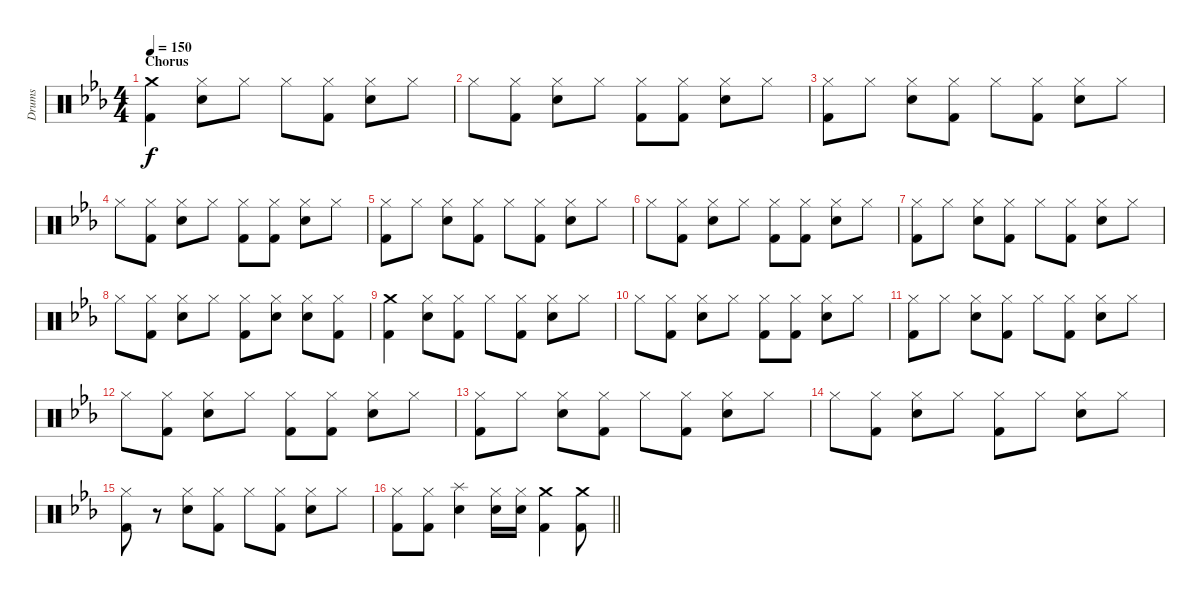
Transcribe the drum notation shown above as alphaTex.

\track ("Drums" "Drums") {instrument percussion}
\staff {score}
\articulation defaults
\ts (4 4)
\section ("" "Chorus")
\tempo 150
\clef neutral
\ks eb
("Crash medium (hit)" "Kick (hit) 2").4{dy f} ("Hi-Hat (closed)" "Electric Snare (hit)").8 "Hi-Hat (closed)".8 "Hi-Hat (closed)".8 ("Hi-Hat (closed)" "Kick (hit) 2").8 ("Hi-Hat (closed)" "Electric Snare (hit)").8 "Hi-Hat (closed)".8 |
"Hi-Hat (closed)".8 ("Hi-Hat (closed)" "Kick (hit) 2").8 ("Hi-Hat (closed)" "Electric Snare (hit)").8 "Hi-Hat (closed)".8 ("Hi-Hat (closed)" "Kick (hit) 2").8 ("Hi-Hat (closed)" "Kick (hit) 2").8 ("Hi-Hat (closed)" "Electric Snare (hit)").8 "Hi-Hat (closed)".8 |
("Hi-Hat (closed)" "Kick (hit) 2").8 "Hi-Hat (closed)".8 ("Hi-Hat (closed)" "Electric Snare (hit)").8 ("Hi-Hat (closed)" "Kick (hit) 2").8 "Hi-Hat (closed)".8 ("Hi-Hat (closed)" "Kick (hit) 2").8 ("Hi-Hat (closed)" "Electric Snare (hit)").8 "Hi-Hat (closed)".8 |
"Hi-Hat (closed)".8 ("Hi-Hat (closed)" "Kick (hit) 2").8 ("Hi-Hat (closed)" "Electric Snare (hit)").8 "Hi-Hat (closed)".8 ("Hi-Hat (closed)" "Kick (hit) 2").8 ("Hi-Hat (closed)" "Kick (hit) 2").8 ("Hi-Hat (closed)" "Electric Snare (hit)").8 "Hi-Hat (closed)".8 |
("Hi-Hat (closed)" "Kick (hit) 2").8 "Hi-Hat (closed)".8 ("Hi-Hat (closed)" "Electric Snare (hit)").8 ("Hi-Hat (closed)" "Kick (hit) 2").8 "Hi-Hat (closed)".8 ("Hi-Hat (closed)" "Kick (hit) 2").8 ("Hi-Hat (closed)" "Electric Snare (hit)").8 "Hi-Hat (closed)".8 |
"Hi-Hat (closed)".8 ("Hi-Hat (closed)" "Kick (hit) 2").8 ("Hi-Hat (closed)" "Electric Snare (hit)").8 "Hi-Hat (closed)".8 ("Hi-Hat (closed)" "Kick (hit) 2").8 ("Hi-Hat (closed)" "Kick (hit) 2").8 ("Hi-Hat (closed)" "Electric Snare (hit)").8 "Hi-Hat (closed)".8 |
("Hi-Hat (closed)" "Kick (hit) 2").8 "Hi-Hat (closed)".8 ("Hi-Hat (closed)" "Electric Snare (hit)").8 ("Hi-Hat (closed)" "Kick (hit) 2").8 "Hi-Hat (closed)".8 ("Hi-Hat (closed)" "Kick (hit) 2").8 ("Hi-Hat (closed)" "Electric Snare (hit)").8 "Hi-Hat (closed)".8 |
"Hi-Hat (closed)".8 ("Hi-Hat (closed)" "Kick (hit) 2").8 ("Hi-Hat (closed)" "Electric Snare (hit)").8 "Hi-Hat (closed)".8 ("Hi-Hat (closed)" "Kick (hit) 2").8 ("Hi-Hat (closed)" "Electric Snare (hit)").8 ("Hi-Hat (closed)" "Electric Snare (hit)").8 ("Hi-Hat (closed)" "Kick (hit) 2").8 |
("Crash medium (hit)" "Kick (hit) 2").4 ("Hi-Hat (closed)" "Electric Snare (hit)").8 ("Hi-Hat (closed)" "Kick (hit) 2").8 "Hi-Hat (closed)".8 ("Hi-Hat (closed)" "Kick (hit) 2").8 ("Hi-Hat (closed)" "Electric Snare (hit)").8 "Hi-Hat (closed)".8 |
"Hi-Hat (closed)".8 ("Hi-Hat (closed)" "Kick (hit) 2").8 ("Hi-Hat (closed)" "Electric Snare (hit)").8 "Hi-Hat (closed)".8 ("Hi-Hat (closed)" "Kick (hit) 2").8 ("Hi-Hat (closed)" "Kick (hit) 2").8 ("Hi-Hat (closed)" "Electric Snare (hit)").8 "Hi-Hat (closed)".8 |
("Hi-Hat (closed)" "Kick (hit) 2").8 "Hi-Hat (closed)".8 ("Hi-Hat (closed)" "Electric Snare (hit)").8 ("Hi-Hat (closed)" "Kick (hit) 2").8 "Hi-Hat (closed)".8 ("Hi-Hat (closed)" "Kick (hit) 2").8 ("Hi-Hat (closed)" "Electric Snare (hit)").8 "Hi-Hat (closed)".8 |
"Hi-Hat (closed)".8 ("Hi-Hat (closed)" "Kick (hit) 2").8 ("Hi-Hat (closed)" "Electric Snare (hit)").8 "Hi-Hat (closed)".8 ("Hi-Hat (closed)" "Kick (hit) 2").8 ("Hi-Hat (closed)" "Kick (hit) 2").8 ("Hi-Hat (closed)" "Electric Snare (hit)").8 "Hi-Hat (closed)".8 |
("Hi-Hat (closed)" "Kick (hit) 2").8 "Hi-Hat (closed)".8 ("Hi-Hat (closed)" "Electric Snare (hit)").8 ("Hi-Hat (closed)" "Kick (hit) 2").8 "Hi-Hat (closed)".8 ("Hi-Hat (closed)" "Kick (hit) 2").8 ("Hi-Hat (closed)" "Electric Snare (hit)").8 "Hi-Hat (closed)".8 |
"Hi-Hat (closed)".8 ("Hi-Hat (closed)" "Kick (hit) 2").8 ("Hi-Hat (closed)" "Electric Snare (hit)").8 "Hi-Hat (closed)".8 ("Hi-Hat (closed)" "Kick (hit) 2").8 "Hi-Hat (closed)".8 ("Hi-Hat (closed)" "Electric Snare (hit)").8 "Hi-Hat (closed)".8 |
("Hi-Hat (closed)" "Kick (hit) 2").8 r.8 ("Hi-Hat (closed)" "Electric Snare (hit)").8 ("Hi-Hat (closed)" "Kick (hit) 2").8 "Hi-Hat (closed)".8 ("Hi-Hat (closed)" "Kick (hit) 2").8 ("Hi-Hat (closed)" "Electric Snare (hit)").8 "Hi-Hat (closed)".8 |
\barLineRight lightlight
("Hi-Hat (closed)" "Kick (hit) 2").8 ("Hi-Hat (closed)" "Kick (hit) 2").8 ("Splash (hit)" "Electric Snare (hit)").4 ("Hi-Hat (closed)" "Electric Snare (hit)").16 ("Hi-Hat (closed)" "Electric Snare (hit)").16 ("Crash medium (hit)" "Kick (hit) 2").4 ("Crash medium (hit)" "Kick (hit) 2").8
